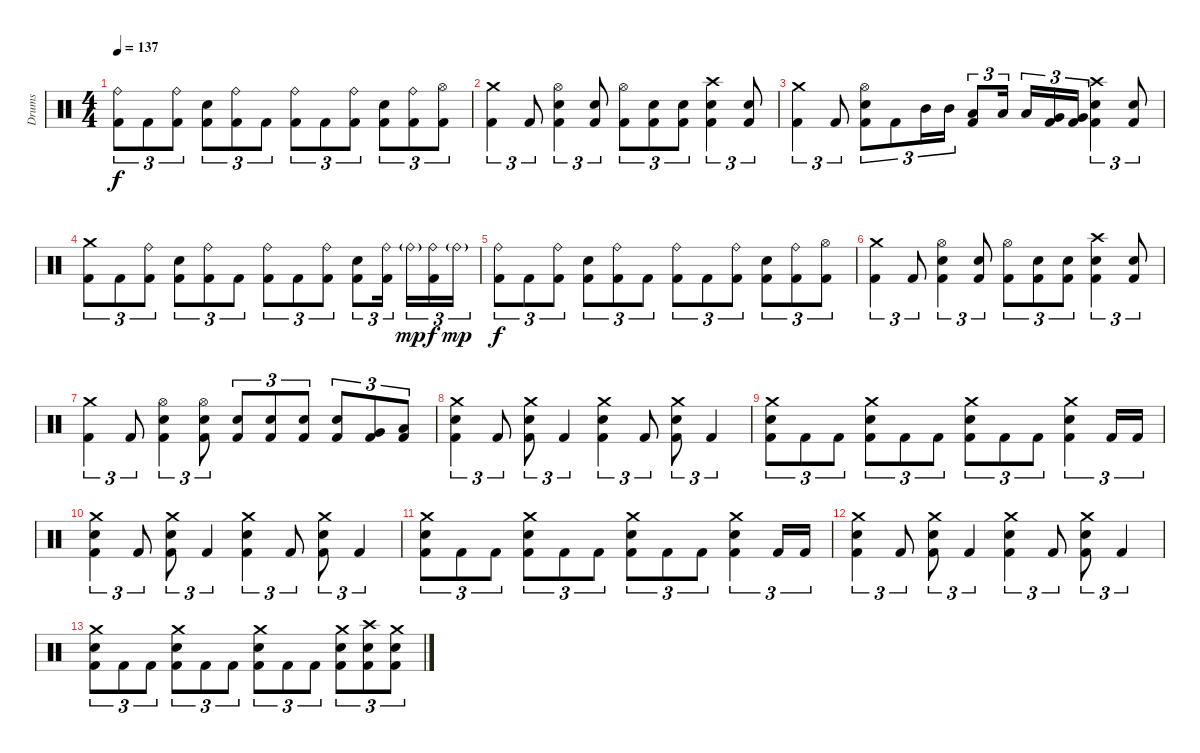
\track ("Drums" "Drums") {instrument percussion}
\staff {score}
\articulation defaults
\ts (4 4)
\tempo 137
\clef neutral
\ks c
("Ride (bell)" "Kick (hit) 2").8{tu (3 2) dy f} "Kick (hit) 2".8{tu (3 2)} ("Ride (bell)" "Kick (hit) 2").8{tu (3 2)} ("Electric Snare (hit)" "Kick (hit) 2").8{tu (3 2)} ("Ride (bell)" "Kick (hit) 2").8{tu (3 2)} "Kick (hit) 2".8{tu (3 2)} ("Ride (bell)" "Kick (hit) 2").8{tu (3 2)} "Kick (hit) 2".8{tu (3 2)} ("Ride (bell)" "Kick (hit) 2").8{tu (3 2)} ("Electric Snare (hit)" "Kick (hit) 2").8{tu (3 2)} ("Ride (bell)" "Kick (hit) 2").8{tu (3 2)} ("Hi-Hat (open)" "Kick (hit) 2").8{tu (3 2)} |
("Crash medium (hit)" "Kick (hit) 2").4{tu (3 2)} "Kick (hit) 2".8{tu (3 2)} ("Hi-Hat (open)" "Electric Snare (hit)" "Kick (hit) 2").4{tu (3 2)} ("Electric Snare (hit)" "Kick (hit) 2").8{tu (3 2)} ("Hi-Hat (open)" "Kick (hit) 2").8{tu (3 2)} ("Electric Snare (hit)" "Kick (hit) 2").8{tu (3 2)} ("Electric Snare (hit)" "Kick (hit) 2").8{tu (3 2)} ("Crash high (hit)" "Electric Snare (hit)" "Kick (hit) 2").4{tu (3 2)} ("Electric Snare (hit)" "Kick (hit) 2").8{tu (3 2)} |
("Crash medium (hit)" "Kick (hit) 2").4{tu (3 2)} "Kick (hit) 2".8{tu (3 2)} ("Hi-Hat (open)" "Electric Snare (hit)" "Kick (hit) 2").8{tu (3 2)} "Kick (hit) 2".8{tu (3 2)} "Mid Tom (hit)".16{tu (3 2)} "Mid Tom (hit)".16{tu (3 2)} ("Low Tom (hit)" "Kick (hit) 2").8{tu (3 2)} "Low Tom (hit)".16{tu (3 2)} "Low Tom (hit)".16{tu (3 2)} ("Very Low Tom (hit)" "Kick (hit) 2").16{tu (3 2)} ("Very Low Tom (hit)" "Kick (hit) 2").16{tu (3 2)} ("Crash high (hit)" "Electric Snare (hit)" "Kick (hit) 2").4{tu (3 2)} ("Electric Snare (hit)" "Kick (hit) 2").8{tu (3 2)} |
("Crash medium (hit)" "Kick (hit) 2").8{tu (3 2)} "Kick (hit) 2".8{tu (3 2)} ("Ride (bell)" "Kick (hit) 2").8{tu (3 2)} ("Electric Snare (hit)" "Kick (hit) 2").8{tu (3 2)} ("Ride (bell)" "Kick (hit) 2").8{tu (3 2)} "Kick (hit) 2".8{tu (3 2)} ("Ride (bell)" "Kick (hit) 2").8{tu (3 2)} "Kick (hit) 2".8{tu (3 2)} ("Ride (bell)" "Kick (hit) 2").8{tu (3 2)} ("Electric Snare (hit)" "Kick (hit) 2").8{tu (3 2)} ("Ride (bell)" "Kick (hit) 2").16{tu (3 2)} "Ride (bell)"{g}.16{tu (3 2) dy mp} ("Ride (bell)" "Kick (hit) 2").16{tu (3 2) dy f} "Ride (bell)"{g}.16{tu (3 2) dy mp} |
("Ride (bell)" "Kick (hit) 2").8{tu (3 2) dy f} "Kick (hit) 2".8{tu (3 2)} ("Ride (bell)" "Kick (hit) 2").8{tu (3 2)} ("Electric Snare (hit)" "Kick (hit) 2").8{tu (3 2)} ("Ride (bell)" "Kick (hit) 2").8{tu (3 2)} "Kick (hit) 2".8{tu (3 2)} ("Ride (bell)" "Kick (hit) 2").8{tu (3 2)} "Kick (hit) 2".8{tu (3 2)} ("Ride (bell)" "Kick (hit) 2").8{tu (3 2)} ("Electric Snare (hit)" "Kick (hit) 2").8{tu (3 2)} ("Ride (bell)" "Kick (hit) 2").8{tu (3 2)} ("Hi-Hat (open)" "Kick (hit) 2").8{tu (3 2)} |
("Crash medium (hit)" "Kick (hit) 2").4{tu (3 2)} "Kick (hit) 2".8{tu (3 2)} ("Hi-Hat (open)" "Electric Snare (hit)" "Kick (hit) 2").4{tu (3 2)} ("Electric Snare (hit)" "Kick (hit) 2").8{tu (3 2)} ("Hi-Hat (open)" "Kick (hit) 2").8{tu (3 2)} ("Electric Snare (hit)" "Kick (hit) 2").8{tu (3 2)} ("Electric Snare (hit)" "Kick (hit) 2").8{tu (3 2)} ("Crash high (hit)" "Electric Snare (hit)" "Kick (hit) 2").4{tu (3 2)} ("Electric Snare (hit)" "Kick (hit) 2").8{tu (3 2)} |
("Crash medium (hit)" "Kick (hit) 2").4{tu (3 2)} "Kick (hit) 2".8{tu (3 2)} ("Hi-Hat (open)" "Electric Snare (hit)" "Kick (hit) 2").4{tu (3 2)} ("Hi-Hat (open)" "Electric Snare (hit)" "Kick (hit) 2").8{tu (3 2)} ("Electric Snare (hit)" "Kick (hit) 2").8{tu (3 2)} ("Electric Snare (hit)" "Kick (hit) 2").8{tu (3 2)} ("Electric Snare (hit)" "Kick (hit) 2").8{tu (3 2)} ("Electric Snare (hit)" "Kick (hit) 2").8{tu (3 2)} ("Very Low Tom (hit)" "Kick (hit) 2").8{tu (3 2)} ("Low Floor Tom (hit)" "Kick (hit) 2").8{tu (3 2)} |
\section ("" "")
("Crash medium (hit)" "Electric Snare (hit)" "Kick (hit) 2").4{tu (3 2)} "Kick (hit) 2".8{tu (3 2)} ("Crash medium (hit)" "Electric Snare (hit)" "Kick (hit) 2").8{tu (3 2)} "Kick (hit) 2".4{tu (3 2)} ("Crash medium (hit)" "Electric Snare (hit)" "Kick (hit) 2").4{tu (3 2)} "Kick (hit) 2".8{tu (3 2)} ("Crash medium (hit)" "Electric Snare (hit)" "Kick (hit) 2").8{tu (3 2)} "Kick (hit) 2".4{tu (3 2)} |
("Crash medium (hit)" "Electric Snare (hit)" "Kick (hit) 2").8{tu (3 2)} "Kick (hit) 2".8{tu (3 2)} "Kick (hit) 2".8{tu (3 2)} ("Crash medium (hit)" "Electric Snare (hit)" "Kick (hit) 2").8{tu (3 2)} "Kick (hit) 2".8{tu (3 2)} "Kick (hit) 2".8{tu (3 2)} ("Crash medium (hit)" "Electric Snare (hit)" "Kick (hit) 2").8{tu (3 2)} "Kick (hit) 2".8{tu (3 2)} "Kick (hit) 2".8{tu (3 2)} ("Crash medium (hit)" "Electric Snare (hit)" "Kick (hit) 2").4{tu (3 2)} "Kick (hit) 2".16{tu (3 2)} "Kick (hit) 2".16{tu (3 2)} |
("Crash medium (hit)" "Electric Snare (hit)" "Kick (hit) 2").4{tu (3 2)} "Kick (hit) 2".8{tu (3 2)} ("Crash medium (hit)" "Electric Snare (hit)" "Kick (hit) 2").8{tu (3 2)} "Kick (hit) 2".4{tu (3 2)} ("Crash medium (hit)" "Electric Snare (hit)" "Kick (hit) 2").4{tu (3 2)} "Kick (hit) 2".8{tu (3 2)} ("Crash medium (hit)" "Electric Snare (hit)" "Kick (hit) 2").8{tu (3 2)} "Kick (hit) 2".4{tu (3 2)} |
("Crash medium (hit)" "Electric Snare (hit)" "Kick (hit) 2").8{tu (3 2)} "Kick (hit) 2".8{tu (3 2)} "Kick (hit) 2".8{tu (3 2)} ("Crash medium (hit)" "Electric Snare (hit)" "Kick (hit) 2").8{tu (3 2)} "Kick (hit) 2".8{tu (3 2)} "Kick (hit) 2".8{tu (3 2)} ("Crash medium (hit)" "Electric Snare (hit)" "Kick (hit) 2").8{tu (3 2)} "Kick (hit) 2".8{tu (3 2)} "Kick (hit) 2".8{tu (3 2)} ("Crash medium (hit)" "Electric Snare (hit)" "Kick (hit) 2").4{tu (3 2)} "Kick (hit) 2".16{tu (3 2)} "Kick (hit) 2".16{tu (3 2)} |
("Crash medium (hit)" "Electric Snare (hit)" "Kick (hit) 2").4{tu (3 2)} "Kick (hit) 2".8{tu (3 2)} ("Crash medium (hit)" "Electric Snare (hit)" "Kick (hit) 2").8{tu (3 2)} "Kick (hit) 2".4{tu (3 2)} ("Crash medium (hit)" "Electric Snare (hit)" "Kick (hit) 2").4{tu (3 2)} "Kick (hit) 2".8{tu (3 2)} ("Crash medium (hit)" "Electric Snare (hit)" "Kick (hit) 2").8{tu (3 2)} "Kick (hit) 2".4{tu (3 2)} |
("Crash medium (hit)" "Electric Snare (hit)" "Kick (hit) 2").8{tu (3 2)} "Kick (hit) 2".8{tu (3 2)} "Kick (hit) 2".8{tu (3 2)} ("Crash medium (hit)" "Electric Snare (hit)" "Kick (hit) 2").8{tu (3 2)} "Kick (hit) 2".8{tu (3 2)} "Kick (hit) 2".8{tu (3 2)} ("Crash medium (hit)" "Electric Snare (hit)" "Kick (hit) 2").8{tu (3 2)} "Kick (hit) 2".8{tu (3 2)} "Kick (hit) 2".8{tu (3 2)} ("Crash medium (hit)" "Electric Snare (hit)" "Kick (hit) 2").8{tu (3 2)} ("Crash high (hit)" "Electric Snare (hit)" "Kick (hit) 2").8{tu (3 2)} ("Crash medium (hit)" "Electric Snare (hit)" "Kick (hit) 2").8{tu (3 2)}
